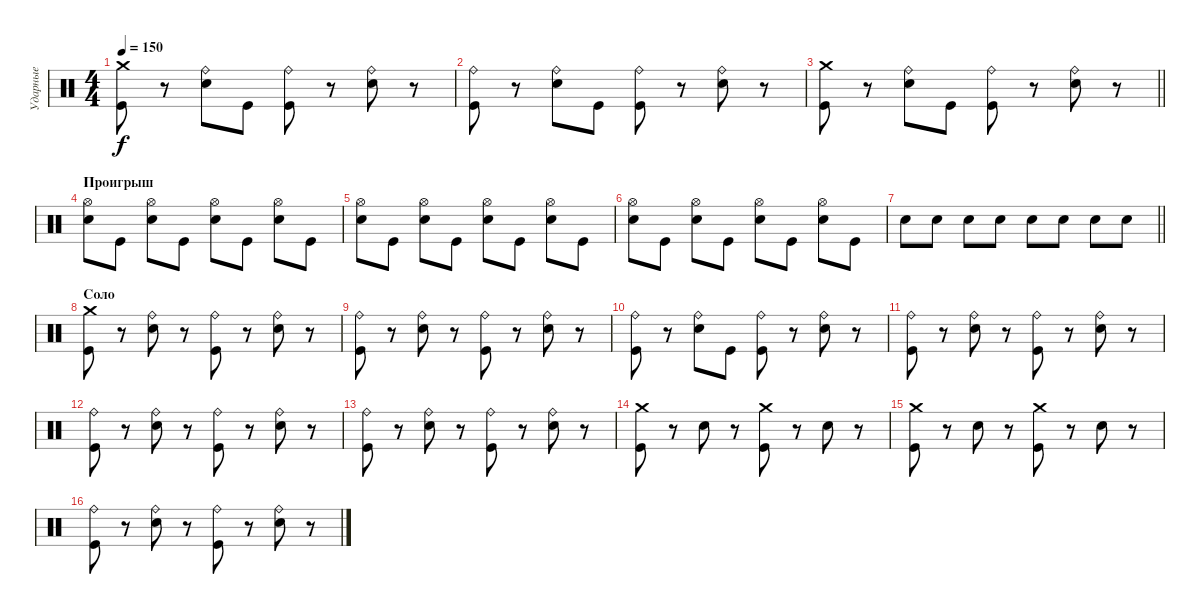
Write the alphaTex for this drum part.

\track ("Ударные" "Ударные") {instrument percussion}
\staff {score}
\articulation defaults
\ts (4 4)
\tempo 150
\clef neutral
\ks c
("Crash medium (hit)" "Kick (hit)").8{dy f} r.8 ("Ride (bell)" "Electric Snare (hit)").8 "Kick (hit)".8 ("Ride (bell)" "Kick (hit)").8 r.8 ("Ride (bell)" "Electric Snare (hit)").8 r.8 |
("Ride (bell)" "Kick (hit)").8 r.8 ("Ride (bell)" "Electric Snare (hit)").8 "Kick (hit)".8 ("Ride (bell)" "Kick (hit)").8 r.8 ("Ride (bell)" "Electric Snare (hit)").8 r.8 |
\barLineRight lightlight
("Crash medium (hit)" "Kick (hit)").8 r.8 ("Ride (bell)" "Electric Snare (hit)").8 "Kick (hit)".8 ("Ride (bell)" "Kick (hit)").8 r.8 ("Ride (bell)" "Electric Snare (hit)").8 r.8 |
\section ("" "Проигрыш")
("Hi-Hat (open)" "Electric Snare (hit)").8 "Kick (hit)".8 ("Hi-Hat (open)" "Electric Snare (hit)").8 "Kick (hit)".8 ("Hi-Hat (open)" "Electric Snare (hit)").8 "Kick (hit)".8 ("Hi-Hat (open)" "Electric Snare (hit)").8 "Kick (hit)".8 |
("Hi-Hat (open)" "Electric Snare (hit)").8 "Kick (hit)".8 ("Hi-Hat (open)" "Electric Snare (hit)").8 "Kick (hit)".8 ("Hi-Hat (open)" "Electric Snare (hit)").8 "Kick (hit)".8 ("Hi-Hat (open)" "Electric Snare (hit)").8 "Kick (hit)".8 |
("Hi-Hat (open)" "Electric Snare (hit)").8 "Kick (hit)".8 ("Hi-Hat (open)" "Electric Snare (hit)").8 "Kick (hit)".8 ("Hi-Hat (open)" "Electric Snare (hit)").8 "Kick (hit)".8 ("Hi-Hat (open)" "Electric Snare (hit)").8 "Kick (hit)".8 |
\barLineRight lightlight "Electric Snare (hit)".8 "Electric Snare (hit)".8 "Electric Snare (hit)".8 "Electric Snare (hit)".8 "Electric Snare (hit)".8 "Electric Snare (hit)".8 "Electric Snare (hit)".8 "Electric Snare (hit)".8
|
\section ("" "Соло")
("Crash medium (hit)" "Kick (hit)").8 r.8 ("Ride (bell)" "Electric Snare (hit)").8 r.8 ("Ride (bell)" "Kick (hit)").8 r.8 ("Ride (bell)" "Electric Snare (hit)").8 r.8 |
("Ride (bell)" "Kick (hit)").8 r.8 ("Ride (bell)" "Electric Snare (hit)").8 r.8 ("Ride (bell)" "Kick (hit)").8 r.8 ("Ride (bell)" "Electric Snare (hit)").8 r.8 |
("Ride (bell)" "Kick (hit)").8 r.8 ("Ride (bell)" "Electric Snare (hit)").8 "Kick (hit)".8 ("Ride (bell)" "Kick (hit)").8 r.8 ("Ride (bell)" "Electric Snare (hit)").8 r.8 |
("Ride (bell)" "Kick (hit)").8 r.8 ("Ride (bell)" "Electric Snare (hit)").8 r.8 ("Ride (bell)" "Kick (hit)").8 r.8 ("Ride (bell)" "Electric Snare (hit)").8 r.8 |
("Ride (bell)" "Kick (hit)").8 r.8 ("Ride (bell)" "Electric Snare (hit)").8 r.8 ("Ride (bell)" "Kick (hit)").8 r.8 ("Ride (bell)" "Electric Snare (hit)").8 r.8 |
("Ride (bell)" "Kick (hit)").8 r.8 ("Ride (bell)" "Electric Snare (hit)").8 r.8 ("Ride (bell)" "Kick (hit)").8 r.8 ("Ride (bell)" "Electric Snare (hit)").8 r.8 |
("Crash medium (hit)" "Kick (hit)").8 r.8 "Electric Snare (hit)".8 r.8 ("Crash medium (hit)" "Kick (hit)").8 r.8 "Electric Snare (hit)".8 r.8 |
("Crash medium (hit)" "Kick (hit)").8 r.8 "Electric Snare (hit)".8 r.8 ("Crash medium (hit)" "Kick (hit)").8 r.8 "Electric Snare (hit)".8 r.8 |
("Ride (bell)" "Kick (hit)").8 r.8 ("Ride (bell)" "Electric Snare (hit)").8 r.8 ("Ride (bell)" "Kick (hit)").8 r.8 ("Ride (bell)" "Electric Snare (hit)").8 r.8
